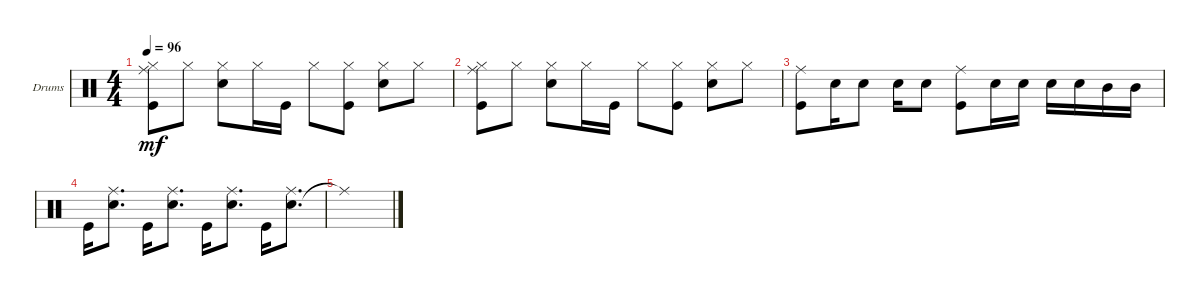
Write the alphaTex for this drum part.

\bracketExtendMode groupsimilarinstruments
\firstSystemTrackNameOrientation horizontal
\otherSystemsTrackNameOrientation horizontal
\track ("Drumkit" "Drums") {instrument percussion}
\staff {score}
\articulation defaults
\ts (4 4)
\tempo 96
\clef neutral
\ks c
("Kick (hit)" "Hi-Hat (closed)" "Ride (middle)").8{dy mf} "Hi-Hat (closed)".8 ("Hi-Hat (closed)" "Snare (hit) 2").8 "Hi-Hat (closed)".16 "Kick (hit)".16 "Hi-Hat (closed)".8 ("Hi-Hat (closed)" "Kick (hit)").8 ("Hi-Hat (closed)" "Snare (hit) 2").8 "Hi-Hat (closed)".8 |
("Kick (hit)" "Hi-Hat (closed)" "Ride (middle)").8 "Hi-Hat (closed)".8 ("Hi-Hat (closed)" "Snare (hit) 2").8 "Hi-Hat (closed)".16 "Kick (hit)".16 "Hi-Hat (closed)".8 ("Hi-Hat (closed)" "Kick (hit)").8 ("Hi-Hat (closed)" "Snare (hit) 2").8 "Hi-Hat (closed)".8 |
("Kick (hit)" "Ride (middle)").8 "Snare (hit) 2".16 "Snare (hit) 2".8 "Snare (hit) 2".16 "Snare (hit) 2".8 ("Kick (hit)" "Ride (middle)").8 "Snare (hit) 2".16 "Snare (hit) 2".16 "Snare (hit) 2".16 "Snare (hit) 2".16 "Mid Tom (hit)".16 "Mid Tom (hit)".16 |
"Kick (hit)".16 ("Snare (hit) 2" "Ride (middle)").8{d} "Kick (hit)".16 ("Snare (hit) 2" "Ride (middle)").8{d} "Kick (hit)".16 ("Snare (hit) 2" "Ride (middle)").8{d} "Kick (hit)".16 ("Snare (hit) 2" "Ride (middle)").8{d} |
"Ride (middle)"{t}.1
